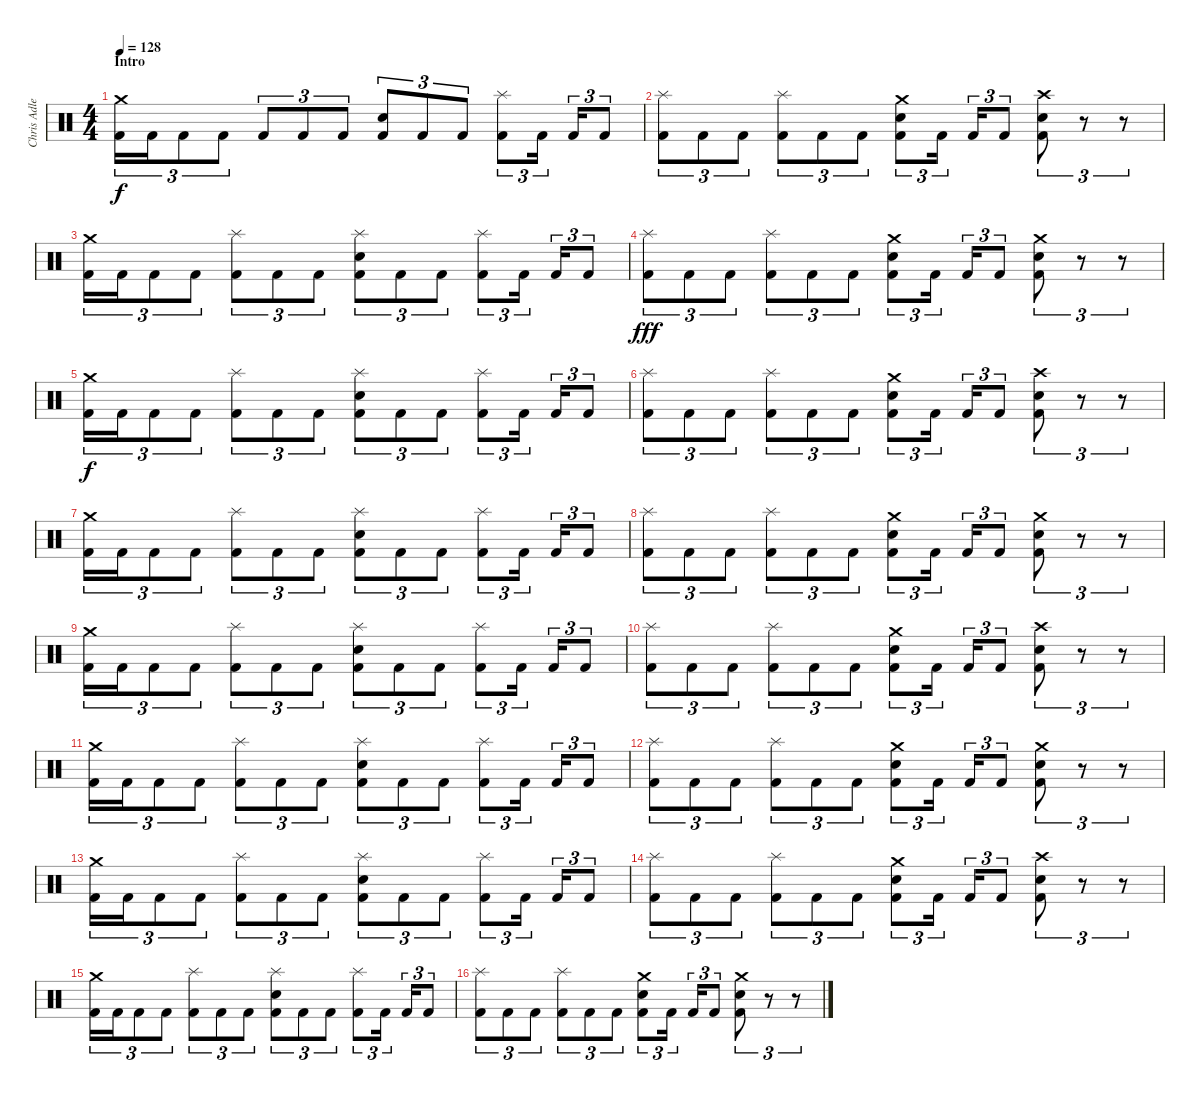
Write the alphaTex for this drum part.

\track ("Chris Adler" "Chris Adle") {instrument percussion}
\staff {score}
\articulation defaults
\ts (4 4)
\section ("" "Intro")
\tempo 128
\clef neutral
\ks c
("Crash medium (hit)" "Kick (hit) 2").16{tu (3 2) dy f} "Kick (hit) 2".16{tu (3 2)} "Kick (hit) 2".8{tu (3 2)} "Kick (hit) 2".8{tu (3 2)} "Kick (hit) 2".8{tu (3 2)} "Kick (hit) 2".8{tu (3 2)} "Kick (hit) 2".8{tu (3 2)} ("Snare (hit) 2" "Kick (hit) 2").8{tu (3 2)} "Kick (hit) 2".8{tu (3 2)} "Kick (hit) 2".8{tu (3 2)} ("Splash (hit)" "Kick (hit) 2").8{tu (3 2)} "Kick (hit) 2".16{tu (3 2)} "Kick (hit) 2".16{tu (3 2)} "Kick (hit) 2".8{tu (3 2)} |
("Splash (hit)" "Kick (hit) 2").8{tu (3 2)} "Kick (hit) 2".8{tu (3 2)} "Kick (hit) 2".8{tu (3 2)} ("Splash (hit)" "Kick (hit) 2").8{tu (3 2)} "Kick (hit) 2".8{tu (3 2)} "Kick (hit) 2".8{tu (3 2)} ("Crash medium (hit)" "Snare (hit) 2" "Kick (hit) 2").8{tu (3 2)} "Kick (hit) 2".16{tu (3 2)} "Kick (hit) 2".16{tu (3 2)} "Kick (hit) 2".8{tu (3 2)} ("Crash high (hit)" "Snare (hit) 2" "Kick (hit) 2").8{tu (3 2)} r.8{tu (3 2)} r.8{tu (3 2)} |
("Crash medium (hit)" "Kick (hit) 2").16{tu (3 2)} "Kick (hit) 2".16{tu (3 2)} "Kick (hit) 2".8{tu (3 2)} "Kick (hit) 2".8{tu (3 2)} ("Splash (hit)" "Kick (hit) 2").8{tu (3 2)} "Kick (hit) 2".8{tu (3 2)} "Kick (hit) 2".8{tu (3 2)} ("Splash (hit)" "Snare (hit) 2" "Kick (hit) 2").8{tu (3 2)} "Kick (hit) 2".8{tu (3 2)} "Kick (hit) 2".8{tu (3 2)} ("Splash (hit)" "Kick (hit) 2").8{tu (3 2)} "Kick (hit) 2".16{tu (3 2)} "Kick (hit) 2".16{tu (3 2)} "Kick (hit) 2".8{tu (3 2)} |
("Splash (hit)" "Kick (hit) 2").8{tu (3 2) dy fff} "Kick (hit) 2".8{tu (3 2)} "Kick (hit) 2".8{tu (3 2)} ("Splash (hit)" "Kick (hit) 2").8{tu (3 2)} "Kick (hit) 2".8{tu (3 2)} "Kick (hit) 2".8{tu (3 2)} ("Crash medium (hit)" "Snare (hit) 2" "Kick (hit) 2").8{tu (3 2)} "Kick (hit) 2".16{tu (3 2)} "Kick (hit) 2".16{tu (3 2)} "Kick (hit) 2".8{tu (3 2)} ("Crash medium (hit)" "Snare (hit) 2" "Kick (hit) 2").8{tu (3 2)} r.8{tu (3 2)} r.8{tu (3 2)} |
("Crash medium (hit)" "Kick (hit) 2").16{tu (3 2) dy f} "Kick (hit) 2".16{tu (3 2)} "Kick (hit) 2".8{tu (3 2)} "Kick (hit) 2".8{tu (3 2)} ("Splash (hit)" "Kick (hit) 2").8{tu (3 2)} "Kick (hit) 2".8{tu (3 2)} "Kick (hit) 2".8{tu (3 2)} ("Splash (hit)" "Snare (hit) 2" "Kick (hit) 2").8{tu (3 2)} "Kick (hit) 2".8{tu (3 2)} "Kick (hit) 2".8{tu (3 2)} ("Splash (hit)" "Kick (hit) 2").8{tu (3 2)} "Kick (hit) 2".16{tu (3 2)} "Kick (hit) 2".16{tu (3 2)} "Kick (hit) 2".8{tu (3 2)} |
("Splash (hit)" "Kick (hit) 2").8{tu (3 2)} "Kick (hit) 2".8{tu (3 2)} "Kick (hit) 2".8{tu (3 2)} ("Splash (hit)" "Kick (hit) 2").8{tu (3 2)} "Kick (hit) 2".8{tu (3 2)} "Kick (hit) 2".8{tu (3 2)} ("Crash medium (hit)" "Snare (hit) 2" "Kick (hit) 2").8{tu (3 2)} "Kick (hit) 2".16{tu (3 2)} "Kick (hit) 2".16{tu (3 2)} "Kick (hit) 2".8{tu (3 2)} ("Crash high (hit)" "Snare (hit) 2" "Kick (hit) 2").8{tu (3 2)} r.8{tu (3 2)} r.8{tu (3 2)} |
("Crash medium (hit)" "Kick (hit) 2").16{tu (3 2)} "Kick (hit) 2".16{tu (3 2)} "Kick (hit) 2".8{tu (3 2)} "Kick (hit) 2".8{tu (3 2)} ("Splash (hit)" "Kick (hit) 2").8{tu (3 2)} "Kick (hit) 2".8{tu (3 2)} "Kick (hit) 2".8{tu (3 2)} ("Splash (hit)" "Snare (hit) 2" "Kick (hit) 2").8{tu (3 2)} "Kick (hit) 2".8{tu (3 2)} "Kick (hit) 2".8{tu (3 2)} ("Splash (hit)" "Kick (hit) 2").8{tu (3 2)} "Kick (hit) 2".16{tu (3 2)} "Kick (hit) 2".16{tu (3 2)} "Kick (hit) 2".8{tu (3 2)} |
("Splash (hit)" "Kick (hit) 2").8{tu (3 2)} "Kick (hit) 2".8{tu (3 2)} "Kick (hit) 2".8{tu (3 2)} ("Splash (hit)" "Kick (hit) 2").8{tu (3 2)} "Kick (hit) 2".8{tu (3 2)} "Kick (hit) 2".8{tu (3 2)} ("Crash medium (hit)" "Snare (hit) 2" "Kick (hit) 2").8{tu (3 2)} "Kick (hit) 2".16{tu (3 2)} "Kick (hit) 2".16{tu (3 2)} "Kick (hit) 2".8{tu (3 2)} ("Crash medium (hit)" "Snare (hit) 2" "Kick (hit) 2").8{tu (3 2)} r.8{tu (3 2)} r.8{tu (3 2)} |
("Crash medium (hit)" "Kick (hit) 2").16{tu (3 2)} "Kick (hit) 2".16{tu (3 2)} "Kick (hit) 2".8{tu (3 2)} "Kick (hit) 2".8{tu (3 2)} ("Splash (hit)" "Kick (hit) 2").8{tu (3 2)} "Kick (hit) 2".8{tu (3 2)} "Kick (hit) 2".8{tu (3 2)} ("Splash (hit)" "Snare (hit) 2" "Kick (hit) 2").8{tu (3 2)} "Kick (hit) 2".8{tu (3 2)} "Kick (hit) 2".8{tu (3 2)} ("Splash (hit)" "Kick (hit) 2").8{tu (3 2)} "Kick (hit) 2".16{tu (3 2)} "Kick (hit) 2".16{tu (3 2)} "Kick (hit) 2".8{tu (3 2)} |
("Splash (hit)" "Kick (hit) 2").8{tu (3 2)} "Kick (hit) 2".8{tu (3 2)} "Kick (hit) 2".8{tu (3 2)} ("Splash (hit)" "Kick (hit) 2").8{tu (3 2)} "Kick (hit) 2".8{tu (3 2)} "Kick (hit) 2".8{tu (3 2)} ("Crash medium (hit)" "Snare (hit) 2" "Kick (hit) 2").8{tu (3 2)} "Kick (hit) 2".16{tu (3 2)} "Kick (hit) 2".16{tu (3 2)} "Kick (hit) 2".8{tu (3 2)} ("Crash high (hit)" "Snare (hit) 2" "Kick (hit) 2").8{tu (3 2)} r.8{tu (3 2)} r.8{tu (3 2)} |
("Crash medium (hit)" "Kick (hit) 2").16{tu (3 2)} "Kick (hit) 2".16{tu (3 2)} "Kick (hit) 2".8{tu (3 2)} "Kick (hit) 2".8{tu (3 2)} ("Splash (hit)" "Kick (hit) 2").8{tu (3 2)} "Kick (hit) 2".8{tu (3 2)} "Kick (hit) 2".8{tu (3 2)} ("Splash (hit)" "Snare (hit) 2" "Kick (hit) 2").8{tu (3 2)} "Kick (hit) 2".8{tu (3 2)} "Kick (hit) 2".8{tu (3 2)} ("Splash (hit)" "Kick (hit) 2").8{tu (3 2)} "Kick (hit) 2".16{tu (3 2)} "Kick (hit) 2".16{tu (3 2)} "Kick (hit) 2".8{tu (3 2)} |
("Splash (hit)" "Kick (hit) 2").8{tu (3 2)} "Kick (hit) 2".8{tu (3 2)} "Kick (hit) 2".8{tu (3 2)} ("Splash (hit)" "Kick (hit) 2").8{tu (3 2)} "Kick (hit) 2".8{tu (3 2)} "Kick (hit) 2".8{tu (3 2)} ("Crash medium (hit)" "Snare (hit) 2" "Kick (hit) 2").8{tu (3 2)} "Kick (hit) 2".16{tu (3 2)} "Kick (hit) 2".16{tu (3 2)} "Kick (hit) 2".8{tu (3 2)} ("Crash medium (hit)" "Snare (hit) 2" "Kick (hit) 2").8{tu (3 2)} r.8{tu (3 2)} r.8{tu (3 2)} |
("Crash medium (hit)" "Kick (hit) 2").16{tu (3 2)} "Kick (hit) 2".16{tu (3 2)} "Kick (hit) 2".8{tu (3 2)} "Kick (hit) 2".8{tu (3 2)} ("Splash (hit)" "Kick (hit) 2").8{tu (3 2)} "Kick (hit) 2".8{tu (3 2)} "Kick (hit) 2".8{tu (3 2)} ("Splash (hit)" "Snare (hit) 2" "Kick (hit) 2").8{tu (3 2)} "Kick (hit) 2".8{tu (3 2)} "Kick (hit) 2".8{tu (3 2)} ("Splash (hit)" "Kick (hit) 2").8{tu (3 2)} "Kick (hit) 2".16{tu (3 2)} "Kick (hit) 2".16{tu (3 2)} "Kick (hit) 2".8{tu (3 2)} |
("Splash (hit)" "Kick (hit) 2").8{tu (3 2)} "Kick (hit) 2".8{tu (3 2)} "Kick (hit) 2".8{tu (3 2)} ("Splash (hit)" "Kick (hit) 2").8{tu (3 2)} "Kick (hit) 2".8{tu (3 2)} "Kick (hit) 2".8{tu (3 2)} ("Crash medium (hit)" "Snare (hit) 2" "Kick (hit) 2").8{tu (3 2)} "Kick (hit) 2".16{tu (3 2)} "Kick (hit) 2".16{tu (3 2)} "Kick (hit) 2".8{tu (3 2)} ("Crash high (hit)" "Snare (hit) 2" "Kick (hit) 2").8{tu (3 2)} r.8{tu (3 2)} r.8{tu (3 2)} |
("Crash medium (hit)" "Kick (hit) 2").16{tu (3 2)} "Kick (hit) 2".16{tu (3 2)} "Kick (hit) 2".8{tu (3 2)} "Kick (hit) 2".8{tu (3 2)} ("Splash (hit)" "Kick (hit) 2").8{tu (3 2)} "Kick (hit) 2".8{tu (3 2)} "Kick (hit) 2".8{tu (3 2)} ("Splash (hit)" "Snare (hit) 2" "Kick (hit) 2").8{tu (3 2)} "Kick (hit) 2".8{tu (3 2)} "Kick (hit) 2".8{tu (3 2)} ("Splash (hit)" "Kick (hit) 2").8{tu (3 2)} "Kick (hit) 2".16{tu (3 2)} "Kick (hit) 2".16{tu (3 2)} "Kick (hit) 2".8{tu (3 2)} |
("Splash (hit)" "Kick (hit) 2").8{tu (3 2)} "Kick (hit) 2".8{tu (3 2)} "Kick (hit) 2".8{tu (3 2)} ("Splash (hit)" "Kick (hit) 2").8{tu (3 2)} "Kick (hit) 2".8{tu (3 2)} "Kick (hit) 2".8{tu (3 2)} ("Crash medium (hit)" "Snare (hit) 2" "Kick (hit) 2").8{tu (3 2)} "Kick (hit) 2".16{tu (3 2)} "Kick (hit) 2".16{tu (3 2)} "Kick (hit) 2".8{tu (3 2)} ("Crash medium (hit)" "Snare (hit) 2" "Kick (hit) 2").8{tu (3 2)} r.8{tu (3 2)} r.8{tu (3 2)}
